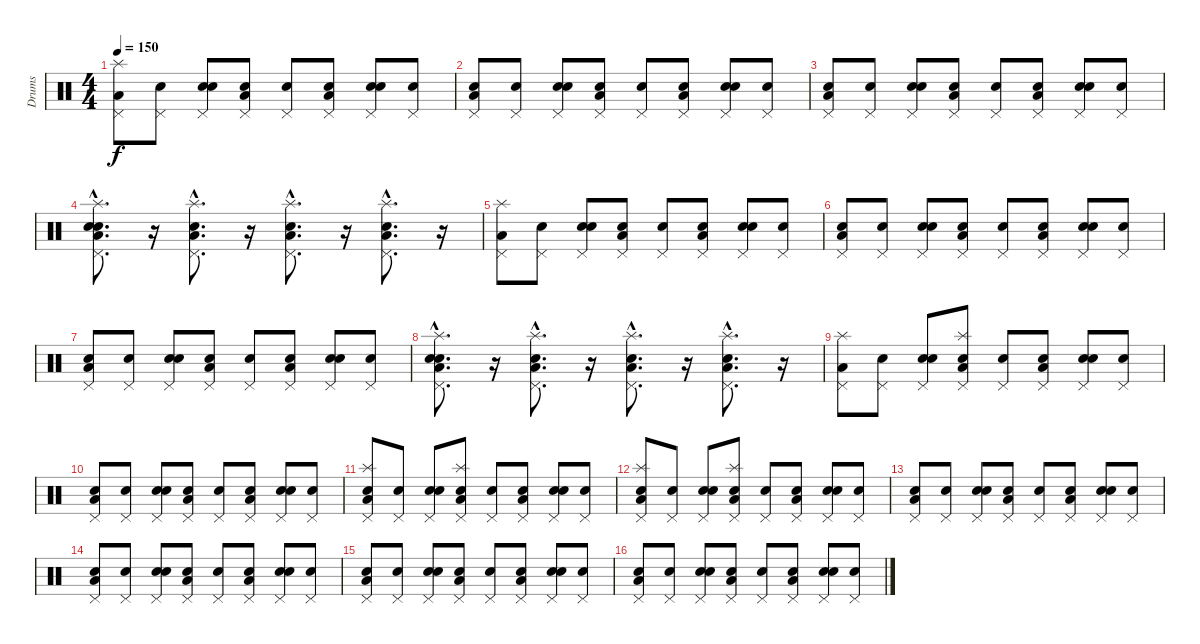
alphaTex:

\track ("Drums" "Drums") {instrument percussion}
\staff {score}
\articulation defaults
\ts (4 4)
\tempo 150
\clef neutral
\ks c
("Low Floor Tom (hit)" "Pedal Hi-Hat (hit)" "Splash (hit)").8{dy f} ("Snare (hit)" "Pedal Hi-Hat (hit)").8 ("Snare (hit)" "Electric Snare (hit)" "Pedal Hi-Hat (hit)").8 ("Snare (hit)" "Low Floor Tom (hit)" "Pedal Hi-Hat (hit)").8 ("Snare (hit)" "Pedal Hi-Hat (hit)").8 ("Snare (hit)" "Low Floor Tom (hit)" "Pedal Hi-Hat (hit)").8 ("Snare (hit)" "Electric Snare (hit)" "Pedal Hi-Hat (hit)").8 ("Snare (hit)" "Pedal Hi-Hat (hit)").8 |
("Snare (hit)" "Low Floor Tom (hit)" "Pedal Hi-Hat (hit)").8 ("Snare (hit)" "Pedal Hi-Hat (hit)").8 ("Snare (hit)" "Electric Snare (hit)" "Pedal Hi-Hat (hit)").8 ("Snare (hit)" "Low Floor Tom (hit)" "Pedal Hi-Hat (hit)").8 ("Snare (hit)" "Pedal Hi-Hat (hit)").8 ("Snare (hit)" "Low Floor Tom (hit)" "Pedal Hi-Hat (hit)").8 ("Snare (hit)" "Electric Snare (hit)" "Pedal Hi-Hat (hit)").8 ("Snare (hit)" "Pedal Hi-Hat (hit)").8 |
("Snare (hit)" "Low Floor Tom (hit)" "Pedal Hi-Hat (hit)").8 ("Snare (hit)" "Pedal Hi-Hat (hit)").8 ("Snare (hit)" "Electric Snare (hit)" "Pedal Hi-Hat (hit)").8 ("Snare (hit)" "Low Floor Tom (hit)" "Pedal Hi-Hat (hit)").8 ("Snare (hit)" "Pedal Hi-Hat (hit)").8 ("Snare (hit)" "Low Floor Tom (hit)" "Pedal Hi-Hat (hit)").8 ("Snare (hit)" "Electric Snare (hit)" "Pedal Hi-Hat (hit)").8 ("Snare (hit)" "Pedal Hi-Hat (hit)").8 |
("Snare (hit)"{hac} "Electric Snare (hit)"{hac} "Low Floor Tom (hit)"{hac} "Pedal Hi-Hat (hit)"{hac} "Splash (hit)"{hac}).8{d} r.16 ("Electric Snare (hit)"{hac} "Low Floor Tom (hit)"{hac} "Pedal Hi-Hat (hit)"{hac} "Splash (hit)"{hac}).8{d} r.16 ("Electric Snare (hit)"{hac} "Low Floor Tom (hit)"{hac} "Pedal Hi-Hat (hit)"{hac} "Splash (hit)"{hac}).8{d} r.16 ("Electric Snare (hit)"{hac} "Low Floor Tom (hit)"{hac} "Pedal Hi-Hat (hit)"{hac} "Splash (hit)"{hac}).8{d} r.16 |
("Low Floor Tom (hit)" "Pedal Hi-Hat (hit)" "Splash (hit)").8 ("Snare (hit)" "Pedal Hi-Hat (hit)").8 ("Snare (hit)" "Electric Snare (hit)" "Pedal Hi-Hat (hit)").8 ("Snare (hit)" "Low Floor Tom (hit)" "Pedal Hi-Hat (hit)").8 ("Snare (hit)" "Pedal Hi-Hat (hit)").8 ("Snare (hit)" "Low Floor Tom (hit)" "Pedal Hi-Hat (hit)").8 ("Snare (hit)" "Electric Snare (hit)" "Pedal Hi-Hat (hit)").8 ("Snare (hit)" "Pedal Hi-Hat (hit)").8 |
("Snare (hit)" "Low Floor Tom (hit)" "Pedal Hi-Hat (hit)").8 ("Snare (hit)" "Pedal Hi-Hat (hit)").8 ("Snare (hit)" "Electric Snare (hit)" "Pedal Hi-Hat (hit)").8 ("Snare (hit)" "Low Floor Tom (hit)" "Pedal Hi-Hat (hit)").8 ("Snare (hit)" "Pedal Hi-Hat (hit)").8 ("Snare (hit)" "Low Floor Tom (hit)" "Pedal Hi-Hat (hit)").8 ("Snare (hit)" "Electric Snare (hit)" "Pedal Hi-Hat (hit)").8 ("Snare (hit)" "Pedal Hi-Hat (hit)").8 |
("Snare (hit)" "Low Floor Tom (hit)" "Pedal Hi-Hat (hit)").8 ("Snare (hit)" "Pedal Hi-Hat (hit)").8 ("Snare (hit)" "Electric Snare (hit)" "Pedal Hi-Hat (hit)").8 ("Snare (hit)" "Low Floor Tom (hit)" "Pedal Hi-Hat (hit)").8 ("Snare (hit)" "Pedal Hi-Hat (hit)").8 ("Snare (hit)" "Low Floor Tom (hit)" "Pedal Hi-Hat (hit)").8 ("Snare (hit)" "Electric Snare (hit)" "Pedal Hi-Hat (hit)").8 ("Snare (hit)" "Pedal Hi-Hat (hit)").8 |
("Snare (hit)"{hac} "Electric Snare (hit)"{hac} "Low Floor Tom (hit)"{hac} "Pedal Hi-Hat (hit)"{hac} "Splash (hit)"{hac}).8{d} r.16 ("Electric Snare (hit)"{hac} "Low Floor Tom (hit)"{hac} "Pedal Hi-Hat (hit)"{hac} "Splash (hit)"{hac}).8{d} r.16 ("Electric Snare (hit)"{hac} "Low Floor Tom (hit)"{hac} "Pedal Hi-Hat (hit)"{hac} "Splash (hit)"{hac}).8{d} r.16 ("Electric Snare (hit)"{hac} "Low Floor Tom (hit)"{hac} "Pedal Hi-Hat (hit)"{hac} "Splash (hit)"{hac}).8{d} r.16 |
("Low Floor Tom (hit)" "Pedal Hi-Hat (hit)" "Splash (hit)").8 ("Snare (hit)" "Pedal Hi-Hat (hit)").8 ("Snare (hit)" "Electric Snare (hit)" "Pedal Hi-Hat (hit)").8 ("Snare (hit)" "Low Floor Tom (hit)" "Pedal Hi-Hat (hit)" "Splash (hit)").8 ("Snare (hit)" "Pedal Hi-Hat (hit)").8 ("Snare (hit)" "Low Floor Tom (hit)" "Pedal Hi-Hat (hit)").8 ("Snare (hit)" "Electric Snare (hit)" "Pedal Hi-Hat (hit)").8 ("Snare (hit)" "Pedal Hi-Hat (hit)").8 |
("Snare (hit)" "Low Floor Tom (hit)" "Pedal Hi-Hat (hit)").8 ("Snare (hit)" "Pedal Hi-Hat (hit)").8 ("Snare (hit)" "Electric Snare (hit)" "Pedal Hi-Hat (hit)").8 ("Snare (hit)" "Low Floor Tom (hit)" "Pedal Hi-Hat (hit)").8 ("Snare (hit)" "Pedal Hi-Hat (hit)").8 ("Snare (hit)" "Low Floor Tom (hit)" "Pedal Hi-Hat (hit)").8 ("Snare (hit)" "Electric Snare (hit)" "Pedal Hi-Hat (hit)").8 ("Snare (hit)" "Pedal Hi-Hat (hit)").8 |
("Snare (hit)" "Low Floor Tom (hit)" "Pedal Hi-Hat (hit)" "Splash (hit)").8 ("Snare (hit)" "Pedal Hi-Hat (hit)").8 ("Snare (hit)" "Electric Snare (hit)" "Pedal Hi-Hat (hit)").8 ("Snare (hit)" "Low Floor Tom (hit)" "Pedal Hi-Hat (hit)" "Splash (hit)").8 ("Snare (hit)" "Pedal Hi-Hat (hit)").8 ("Snare (hit)" "Low Floor Tom (hit)" "Pedal Hi-Hat (hit)").8 ("Snare (hit)" "Electric Snare (hit)" "Pedal Hi-Hat (hit)").8 ("Snare (hit)" "Pedal Hi-Hat (hit)").8 |
("Snare (hit)" "Low Floor Tom (hit)" "Pedal Hi-Hat (hit)" "Splash (hit)").8 ("Snare (hit)" "Pedal Hi-Hat (hit)").8 ("Snare (hit)" "Electric Snare (hit)" "Pedal Hi-Hat (hit)").8 ("Snare (hit)" "Low Floor Tom (hit)" "Pedal Hi-Hat (hit)" "Splash (hit)").8 ("Snare (hit)" "Pedal Hi-Hat (hit)").8 ("Snare (hit)" "Low Floor Tom (hit)" "Pedal Hi-Hat (hit)").8 ("Snare (hit)" "Electric Snare (hit)" "Pedal Hi-Hat (hit)").8 ("Snare (hit)" "Pedal Hi-Hat (hit)").8 |
("Snare (hit)" "Low Floor Tom (hit)" "Pedal Hi-Hat (hit)").8 ("Snare (hit)" "Pedal Hi-Hat (hit)").8 ("Snare (hit)" "Electric Snare (hit)" "Pedal Hi-Hat (hit)").8 ("Snare (hit)" "Low Floor Tom (hit)" "Pedal Hi-Hat (hit)").8 ("Snare (hit)" "Pedal Hi-Hat (hit)").8 ("Snare (hit)" "Low Floor Tom (hit)" "Pedal Hi-Hat (hit)").8 ("Snare (hit)" "Electric Snare (hit)" "Pedal Hi-Hat (hit)").8 ("Snare (hit)" "Pedal Hi-Hat (hit)").8 |
("Snare (hit)" "Low Floor Tom (hit)" "Pedal Hi-Hat (hit)").8 ("Snare (hit)" "Pedal Hi-Hat (hit)").8 ("Snare (hit)" "Electric Snare (hit)" "Pedal Hi-Hat (hit)").8 ("Snare (hit)" "Low Floor Tom (hit)" "Pedal Hi-Hat (hit)").8 ("Snare (hit)" "Pedal Hi-Hat (hit)").8 ("Snare (hit)" "Low Floor Tom (hit)" "Pedal Hi-Hat (hit)").8 ("Snare (hit)" "Electric Snare (hit)" "Pedal Hi-Hat (hit)").8 ("Snare (hit)" "Pedal Hi-Hat (hit)").8 |
("Snare (hit)" "Low Floor Tom (hit)" "Pedal Hi-Hat (hit)").8 ("Snare (hit)" "Pedal Hi-Hat (hit)").8 ("Snare (hit)" "Electric Snare (hit)" "Pedal Hi-Hat (hit)").8 ("Snare (hit)" "Low Floor Tom (hit)" "Pedal Hi-Hat (hit)").8 ("Snare (hit)" "Pedal Hi-Hat (hit)").8 ("Snare (hit)" "Low Floor Tom (hit)" "Pedal Hi-Hat (hit)").8 ("Snare (hit)" "Electric Snare (hit)" "Pedal Hi-Hat (hit)").8 ("Snare (hit)" "Pedal Hi-Hat (hit)").8 |
("Snare (hit)" "Low Floor Tom (hit)" "Pedal Hi-Hat (hit)").8 ("Snare (hit)" "Pedal Hi-Hat (hit)").8 ("Snare (hit)" "Electric Snare (hit)" "Pedal Hi-Hat (hit)").8 ("Snare (hit)" "Low Floor Tom (hit)" "Pedal Hi-Hat (hit)").8 ("Snare (hit)" "Pedal Hi-Hat (hit)").8 ("Snare (hit)" "Low Floor Tom (hit)" "Pedal Hi-Hat (hit)").8 ("Snare (hit)" "Electric Snare (hit)" "Pedal Hi-Hat (hit)").8 ("Snare (hit)" "Pedal Hi-Hat (hit)").8
